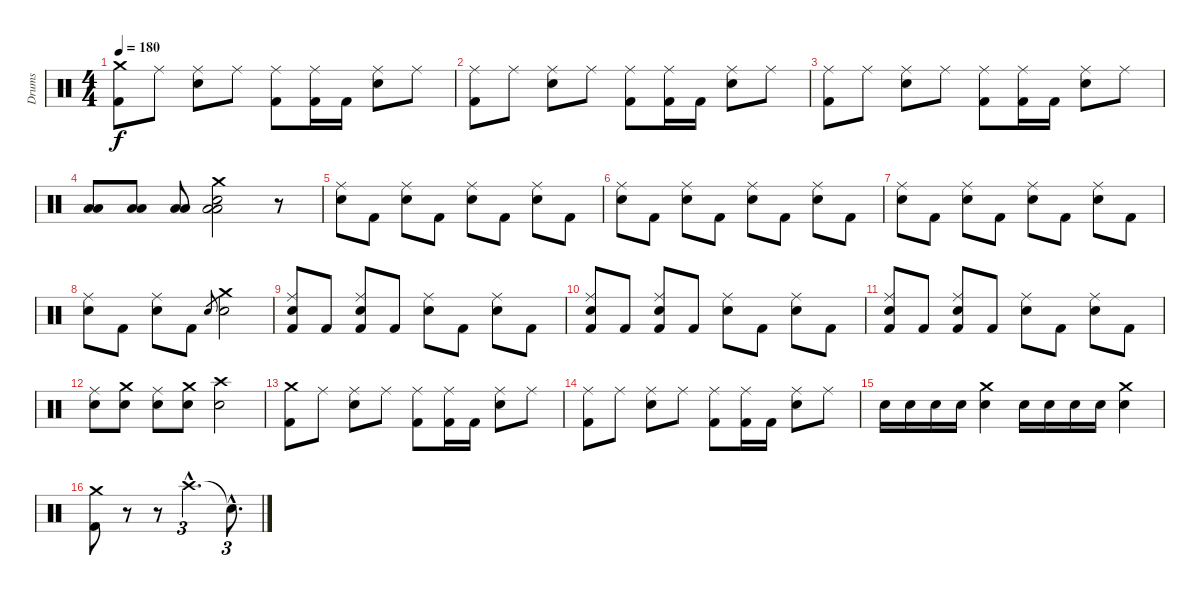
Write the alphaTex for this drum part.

\track ("Drums" "Drums") {instrument percussion}
\staff {score}
\articulation defaults
\ts (4 4)
\tempo 180
\clef neutral
\ks c
("Crash medium (hit)" "Kick (hit) 2").8{dy f} "Ride (middle)".8 ("Ride (middle)" "Electric Snare (hit)").8 "Ride (middle)".8 ("Ride (middle)" "Kick (hit) 2").8 ("Ride (middle)" "Kick (hit) 2").16 "Kick (hit) 2".16 ("Ride (middle)" "Electric Snare (hit)").8 "Ride (middle)".8 |
("Ride (middle)" "Kick (hit) 2").8 "Ride (middle)".8 ("Ride (middle)" "Electric Snare (hit)").8 "Ride (middle)".8 ("Ride (middle)" "Kick (hit) 2").8 ("Ride (middle)" "Kick (hit) 2").16 "Kick (hit) 2".16 ("Ride (middle)" "Electric Snare (hit)").8 "Ride (middle)".8 |
("Ride (middle)" "Kick (hit) 2").8 "Ride (middle)".8 ("Ride (middle)" "Electric Snare (hit)").8 "Ride (middle)".8 ("Ride (middle)" "Kick (hit) 2").8 ("Ride (middle)" "Kick (hit) 2").16 "Kick (hit) 2".16 ("Ride (middle)" "Electric Snare (hit)").8 "Ride (middle)".8 |
("Low Tom (hit)" "Low Tom (hit)").8 ("Low Tom (hit)" "Low Tom (hit)").8 ("Low Tom (hit)" "Low Tom (hit)").8 ("Crash medium (hit)" "Electric Snare (hit)" "Low Tom (hit)" "Low Tom (hit)").2 r.8 |
("Ride (middle)" "Electric Snare (hit)").8 "Kick (hit) 2".8 ("Ride (middle)" "Electric Snare (hit)").8 "Kick (hit) 2".8 ("Ride (middle)" "Electric Snare (hit)").8 "Kick (hit) 2".8 ("Ride (middle)" "Electric Snare (hit)").8 "Kick (hit) 2".8 |
("Ride (middle)" "Electric Snare (hit)").8 "Kick (hit) 2".8 ("Ride (middle)" "Electric Snare (hit)").8 "Kick (hit) 2".8 ("Ride (middle)" "Electric Snare (hit)").8 "Kick (hit) 2".8 ("Ride (middle)" "Electric Snare (hit)").8 "Kick (hit) 2".8 |
("Ride (middle)" "Electric Snare (hit)").8 "Kick (hit) 2".8 ("Ride (middle)" "Electric Snare (hit)").8 "Kick (hit) 2".8 ("Ride (middle)" "Electric Snare (hit)").8 "Kick (hit) 2".8 ("Ride (middle)" "Electric Snare (hit)").8 "Kick (hit) 2".8 |
("Ride (middle)" "Electric Snare (hit)").8 "Kick (hit) 2".8 ("Ride (middle)" "Electric Snare (hit)").8 "Kick (hit) 2".8 "Electric Snare (hit)".8{gr} ("Crash medium (hit)" "Electric Snare (hit)").2 |
("Ride (middle)" "Kick (hit) 2" "Electric Snare (hit)").8 "Kick (hit) 2".8 ("Ride (middle)" "Kick (hit) 2" "Electric Snare (hit)").8 "Kick (hit) 2".8 ("Ride (middle)" "Electric Snare (hit)").8 "Kick (hit) 2".8 ("Ride (middle)" "Electric Snare (hit)").8 "Kick (hit) 2".8 |
("Ride (middle)" "Kick (hit) 2" "Electric Snare (hit)").8 "Kick (hit) 2".8 ("Ride (middle)" "Kick (hit) 2" "Electric Snare (hit)").8 "Kick (hit) 2".8 ("Ride (middle)" "Electric Snare (hit)").8 "Kick (hit) 2".8 ("Ride (middle)" "Electric Snare (hit)").8 "Kick (hit) 2".8 |
("Ride (middle)" "Kick (hit) 2" "Electric Snare (hit)").8 "Kick (hit) 2".8 ("Ride (middle)" "Kick (hit) 2" "Electric Snare (hit)").8 "Kick (hit) 2".8 ("Ride (middle)" "Electric Snare (hit)").8 "Kick (hit) 2".8 ("Ride (middle)" "Electric Snare (hit)").8 "Kick (hit) 2".8 |
("Ride (middle)" "Electric Snare (hit)").8 ("Crash medium (hit)" "Electric Snare (hit)").8 ("Ride (middle)" "Electric Snare (hit)").8 ("Crash medium (hit)" "Electric Snare (hit)").8 ("Crash high (hit)" "Electric Snare (hit)").2 |
("Crash medium (hit)" "Kick (hit) 2").8 "Ride (middle)".8 ("Ride (middle)" "Electric Snare (hit)").8 "Ride (middle)".8 ("Ride (middle)" "Kick (hit) 2").8 ("Ride (middle)" "Kick (hit) 2").16 "Kick (hit) 2".16 ("Ride (middle)" "Electric Snare (hit)").8 "Ride (middle)".8 |
("Ride (middle)" "Kick (hit) 2").8 "Ride (middle)".8 ("Ride (middle)" "Electric Snare (hit)").8 "Ride (middle)".8 ("Ride (middle)" "Kick (hit) 2").8 ("Ride (middle)" "Kick (hit) 2").16 "Kick (hit) 2".16 ("Ride (middle)" "Electric Snare (hit)").8 "Ride (middle)".8 |
"Electric Snare (hit)".16 "Electric Snare (hit)".16 "Electric Snare (hit)".16 "Electric Snare (hit)".16 ("Electric Snare (hit)" "Crash medium (hit)").4 "Electric Snare (hit)".16 "Electric Snare (hit)".16 "Electric Snare (hit)".16 "Electric Snare (hit)".16 ("Electric Snare (hit)" "Crash medium (hit)").4 |
("Crash medium (hit)" "Kick (hit) 2").8 r.8 r.8 "Crash high (hit)"{hac}.2{d tu (3 2)} "Snare (hit)"{hac t}.8{d tu (3 2)}
